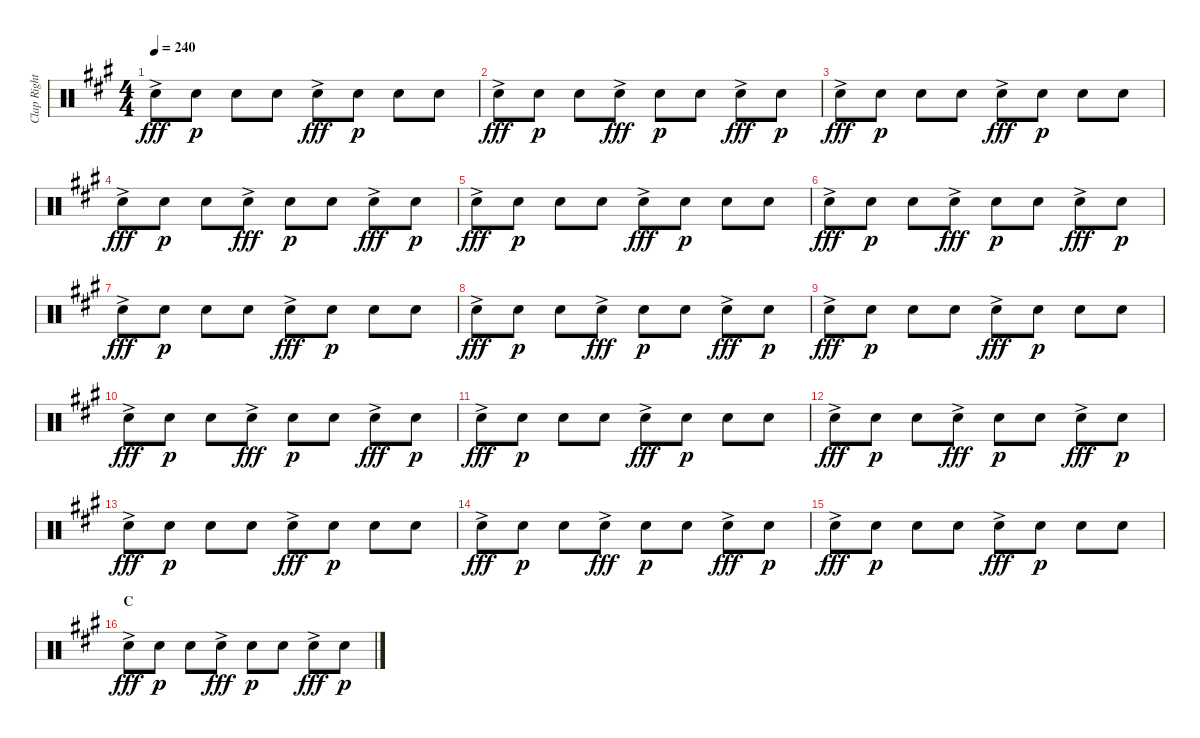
\track ("Clap Right" "Clap Right") {instrument percussion}
\staff {score}
\articulation defaults
\ts (4 4)
\tempo 240
\clef neutral
\ks a "Hand Clap (hit)"{ac}.8{dy fff} "Hand Clap (hit)".8{dy p} "Hand Clap (hit)".8 "Hand Clap (hit)".8 "Hand Clap (hit)"{ac}.8{dy fff} "Hand Clap (hit)".8{dy p} "Hand Clap (hit)".8 "Hand Clap (hit)".8
|
"Hand Clap (hit)"{ac}.8{dy fff} "Hand Clap (hit)".8{dy p} "Hand Clap (hit)".8 "Hand Clap (hit)"{ac}.8{dy fff} "Hand Clap (hit)".8{dy p} "Hand Clap (hit)".8 "Hand Clap (hit)"{ac}.8{dy fff} "Hand Clap (hit)".8{dy p} |
"Hand Clap (hit)"{ac}.8{dy fff} "Hand Clap (hit)".8{dy p} "Hand Clap (hit)".8 "Hand Clap (hit)".8 "Hand Clap (hit)"{ac}.8{dy fff} "Hand Clap (hit)".8{dy p} "Hand Clap (hit)".8 "Hand Clap (hit)".8 |
"Hand Clap (hit)"{ac}.8{dy fff} "Hand Clap (hit)".8{dy p} "Hand Clap (hit)".8 "Hand Clap (hit)"{ac}.8{dy fff} "Hand Clap (hit)".8{dy p} "Hand Clap (hit)".8 "Hand Clap (hit)"{ac}.8{dy fff} "Hand Clap (hit)".8{dy p} |
"Hand Clap (hit)"{ac}.8{dy fff} "Hand Clap (hit)".8{dy p} "Hand Clap (hit)".8 "Hand Clap (hit)".8 "Hand Clap (hit)"{ac}.8{dy fff} "Hand Clap (hit)".8{dy p} "Hand Clap (hit)".8 "Hand Clap (hit)".8 |
"Hand Clap (hit)"{ac}.8{dy fff} "Hand Clap (hit)".8{dy p} "Hand Clap (hit)".8 "Hand Clap (hit)"{ac}.8{dy fff} "Hand Clap (hit)".8{dy p} "Hand Clap (hit)".8 "Hand Clap (hit)"{ac}.8{dy fff} "Hand Clap (hit)".8{dy p} |
"Hand Clap (hit)"{ac}.8{dy fff} "Hand Clap (hit)".8{dy p} "Hand Clap (hit)".8 "Hand Clap (hit)".8 "Hand Clap (hit)"{ac}.8{dy fff} "Hand Clap (hit)".8{dy p} "Hand Clap (hit)".8 "Hand Clap (hit)".8 |
"Hand Clap (hit)"{ac}.8{dy fff} "Hand Clap (hit)".8{dy p} "Hand Clap (hit)".8 "Hand Clap (hit)"{ac}.8{dy fff} "Hand Clap (hit)".8{dy p} "Hand Clap (hit)".8 "Hand Clap (hit)"{ac}.8{dy fff} "Hand Clap (hit)".8{dy p} |
"Hand Clap (hit)"{ac}.8{dy fff} "Hand Clap (hit)".8{dy p} "Hand Clap (hit)".8 "Hand Clap (hit)".8 "Hand Clap (hit)"{ac}.8{dy fff} "Hand Clap (hit)".8{dy p} "Hand Clap (hit)".8 "Hand Clap (hit)".8 |
"Hand Clap (hit)"{ac}.8{dy fff} "Hand Clap (hit)".8{dy p} "Hand Clap (hit)".8 "Hand Clap (hit)"{ac}.8{dy fff} "Hand Clap (hit)".8{dy p} "Hand Clap (hit)".8 "Hand Clap (hit)"{ac}.8{dy fff} "Hand Clap (hit)".8{dy p} |
"Hand Clap (hit)"{ac}.8{dy fff} "Hand Clap (hit)".8{dy p} "Hand Clap (hit)".8 "Hand Clap (hit)".8 "Hand Clap (hit)"{ac}.8{dy fff} "Hand Clap (hit)".8{dy p} "Hand Clap (hit)".8 "Hand Clap (hit)".8 |
"Hand Clap (hit)"{ac}.8{dy fff} "Hand Clap (hit)".8{dy p} "Hand Clap (hit)".8 "Hand Clap (hit)"{ac}.8{dy fff} "Hand Clap (hit)".8{dy p} "Hand Clap (hit)".8 "Hand Clap (hit)"{ac}.8{dy fff} "Hand Clap (hit)".8{dy p} |
"Hand Clap (hit)"{ac}.8{dy fff} "Hand Clap (hit)".8{dy p} "Hand Clap (hit)".8 "Hand Clap (hit)".8 "Hand Clap (hit)"{ac}.8{dy fff} "Hand Clap (hit)".8{dy p} "Hand Clap (hit)".8 "Hand Clap (hit)".8 |
"Hand Clap (hit)"{ac}.8{dy fff} "Hand Clap (hit)".8{dy p} "Hand Clap (hit)".8 "Hand Clap (hit)"{ac}.8{dy fff} "Hand Clap (hit)".8{dy p} "Hand Clap (hit)".8 "Hand Clap (hit)"{ac}.8{dy fff} "Hand Clap (hit)".8{dy p} |
"Hand Clap (hit)"{ac}.8{dy fff} "Hand Clap (hit)".8{dy p} "Hand Clap (hit)".8 "Hand Clap (hit)".8 "Hand Clap (hit)"{ac}.8{dy fff} "Hand Clap (hit)".8{dy p} "Hand Clap (hit)".8 "Hand Clap (hit)".8 |
\section ("" "C")
"Hand Clap (hit)"{ac}.8{dy fff} "Hand Clap (hit)".8{dy p} "Hand Clap (hit)".8 "Hand Clap (hit)"{ac}.8{dy fff} "Hand Clap (hit)".8{dy p} "Hand Clap (hit)".8 "Hand Clap (hit)"{ac}.8{dy fff} "Hand Clap (hit)".8{dy p}
